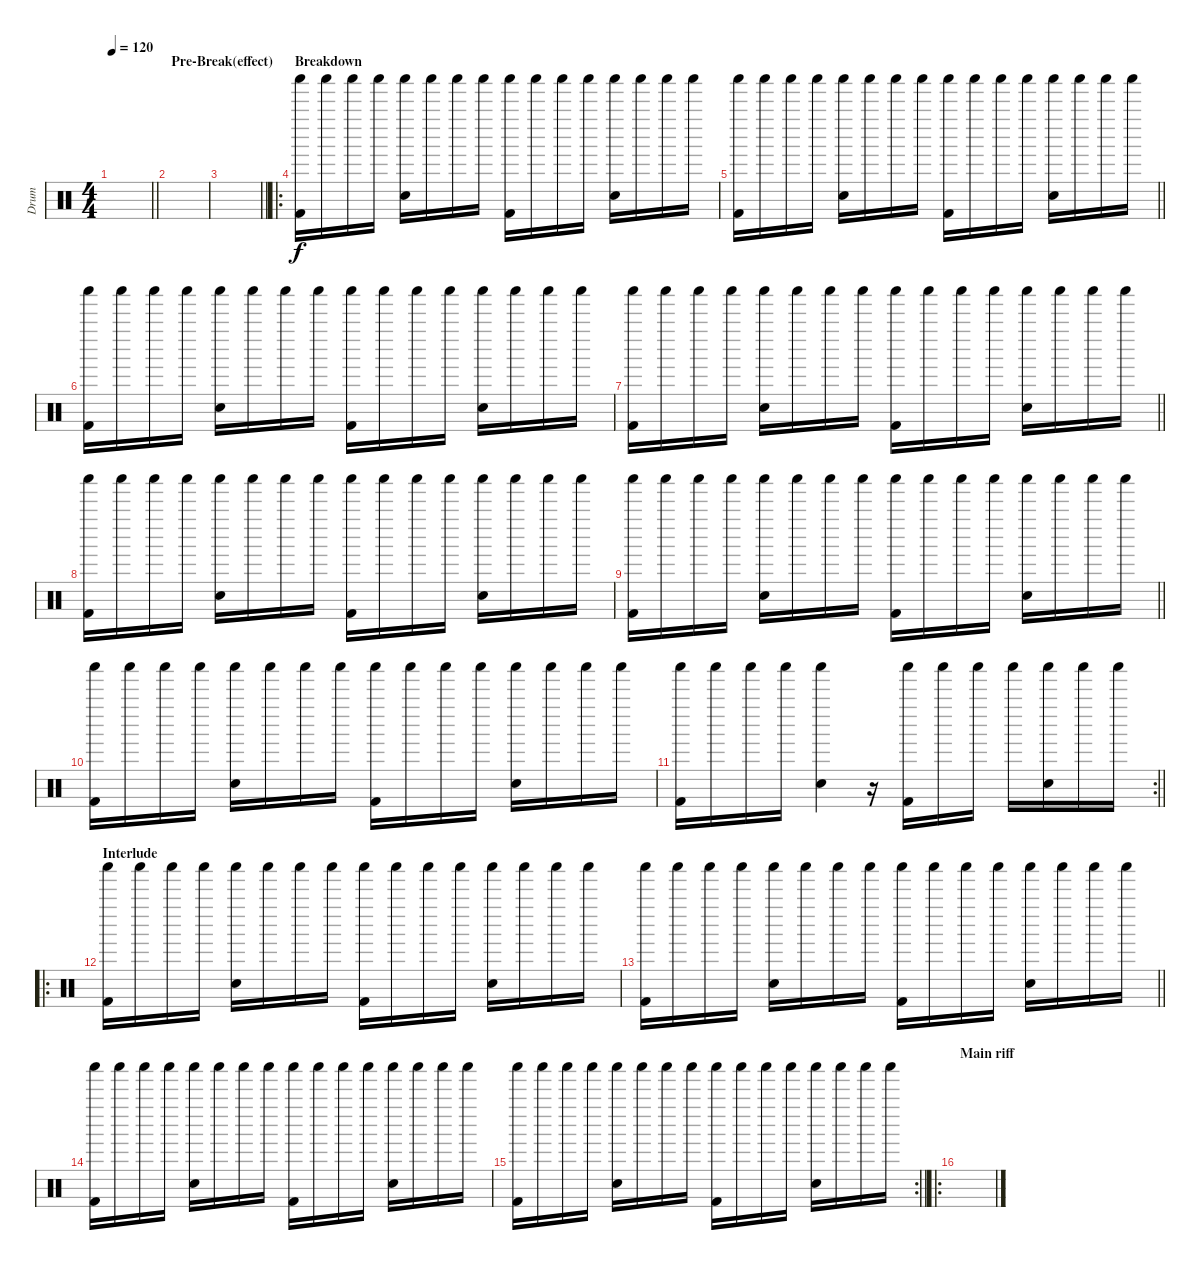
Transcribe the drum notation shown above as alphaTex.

\track ("Drum " "Drum ") {instrument percussion}
\staff {score}
\articulation defaults
\ts (4 4)
\tempo 120
\clef neutral
\barLineRight lightlight
\ks c
|
\section ("" "Pre-Break(effect)")
|
\barLineRight lightlight
|
\ro
\section ("" "Breakdown")
("Kick (hit) 2" "Shaker (hit)").16 "Shaker (hit)".16 "Shaker (hit)".16 "Shaker (hit)".16 ("Electric Snare (hit)" "Shaker (hit)").16 "Shaker (hit)".16 "Shaker (hit)".16 "Shaker (hit)".16 ("Kick (hit) 2" "Shaker (hit)").16 "Shaker (hit)".16 "Shaker (hit)".16 "Shaker (hit)".16 ("Electric Snare (hit)" "Shaker (hit)").16 "Shaker (hit)".16 "Shaker (hit)".16 "Shaker (hit)".16 |
\barLineRight lightlight
("Kick (hit) 2" "Shaker (hit)").16 "Shaker (hit)".16 "Shaker (hit)".16 "Shaker (hit)".16 ("Electric Snare (hit)" "Shaker (hit)").16 "Shaker (hit)".16 "Shaker (hit)".16 "Shaker (hit)".16 ("Kick (hit) 2" "Shaker (hit)").16 "Shaker (hit)".16 "Shaker (hit)".16 "Shaker (hit)".16 ("Electric Snare (hit)" "Shaker (hit)").16 "Shaker (hit)".16 "Shaker (hit)".16 "Shaker (hit)".16 |
("Kick (hit) 2" "Shaker (hit)").16 "Shaker (hit)".16 "Shaker (hit)".16 "Shaker (hit)".16 ("Electric Snare (hit)" "Shaker (hit)").16 "Shaker (hit)".16 "Shaker (hit)".16 "Shaker (hit)".16 ("Kick (hit) 2" "Shaker (hit)").16 "Shaker (hit)".16 "Shaker (hit)".16 "Shaker (hit)".16 ("Electric Snare (hit)" "Shaker (hit)").16 "Shaker (hit)".16 "Shaker (hit)".16 "Shaker (hit)".16 |
\barLineRight lightlight
("Kick (hit) 2" "Shaker (hit)").16 "Shaker (hit)".16 "Shaker (hit)".16 "Shaker (hit)".16 ("Electric Snare (hit)" "Shaker (hit)").16 "Shaker (hit)".16 "Shaker (hit)".16 "Shaker (hit)".16 ("Kick (hit) 2" "Shaker (hit)").16 "Shaker (hit)".16 "Shaker (hit)".16 "Shaker (hit)".16 ("Electric Snare (hit)" "Shaker (hit)").16 "Shaker (hit)".16 "Shaker (hit)".16 "Shaker (hit)".16 |
("Kick (hit) 2" "Shaker (hit)").16 "Shaker (hit)".16 "Shaker (hit)".16 "Shaker (hit)".16 ("Electric Snare (hit)" "Shaker (hit)").16 "Shaker (hit)".16 "Shaker (hit)".16 "Shaker (hit)".16 ("Kick (hit) 2" "Shaker (hit)").16 "Shaker (hit)".16 "Shaker (hit)".16 "Shaker (hit)".16 ("Electric Snare (hit)" "Shaker (hit)").16 "Shaker (hit)".16 "Shaker (hit)".16 "Shaker (hit)".16 |
\barLineRight lightlight
("Kick (hit) 2" "Shaker (hit)").16 "Shaker (hit)".16 "Shaker (hit)".16 "Shaker (hit)".16 ("Electric Snare (hit)" "Shaker (hit)").16 "Shaker (hit)".16 "Shaker (hit)".16 "Shaker (hit)".16 ("Kick (hit) 2" "Shaker (hit)").16 "Shaker (hit)".16 "Shaker (hit)".16 "Shaker (hit)".16 ("Electric Snare (hit)" "Shaker (hit)").16 "Shaker (hit)".16 "Shaker (hit)".16 "Shaker (hit)".16 |
("Kick (hit) 2" "Shaker (hit)").16 "Shaker (hit)".16 "Shaker (hit)".16 "Shaker (hit)".16 ("Electric Snare (hit)" "Shaker (hit)").16 "Shaker (hit)".16 "Shaker (hit)".16 "Shaker (hit)".16 ("Kick (hit) 2" "Shaker (hit)").16 "Shaker (hit)".16 "Shaker (hit)".16 "Shaker (hit)".16 ("Electric Snare (hit)" "Shaker (hit)").16 "Shaker (hit)".16 "Shaker (hit)".16 "Shaker (hit)".16 |
\rc 2
\barLineRight lightlight
("Kick (hit) 2" "Shaker (hit)").16 "Shaker (hit)".16 "Shaker (hit)".16 "Shaker (hit)".16 ("Electric Snare (hit)" "Shaker (hit)").4 r.16 ("Kick (hit) 2" "Shaker (hit)").16 "Shaker (hit)".16 "Shaker (hit)".16 "Shaker (hit)".16 ("Electric Snare (hit)" "Shaker (hit)").16 "Shaker (hit)".16 "Shaker (hit)".16 |
\ro
\section ("" "Interlude")
("Kick (hit) 2" "Shaker (hit)").16 "Shaker (hit)".16 "Shaker (hit)".16 "Shaker (hit)".16 ("Electric Snare (hit)" "Shaker (hit)").16 "Shaker (hit)".16 "Shaker (hit)".16 "Shaker (hit)".16 ("Kick (hit) 2" "Shaker (hit)").16 "Shaker (hit)".16 "Shaker (hit)".16 "Shaker (hit)".16 ("Electric Snare (hit)" "Shaker (hit)").16 "Shaker (hit)".16 "Shaker (hit)".16 "Shaker (hit)".16 |
\barLineRight lightlight
("Kick (hit) 2" "Shaker (hit)").16 "Shaker (hit)".16 "Shaker (hit)".16 "Shaker (hit)".16 ("Electric Snare (hit)" "Shaker (hit)").16 "Shaker (hit)".16 "Shaker (hit)".16 "Shaker (hit)".16 ("Kick (hit) 2" "Shaker (hit)").16 "Shaker (hit)".16 "Shaker (hit)".16 "Shaker (hit)".16 ("Electric Snare (hit)" "Shaker (hit)").16 "Shaker (hit)".16 "Shaker (hit)".16 "Shaker (hit)".16 |
("Kick (hit) 2" "Shaker (hit)").16 "Shaker (hit)".16 "Shaker (hit)".16 "Shaker (hit)".16 ("Electric Snare (hit)" "Shaker (hit)").16 "Shaker (hit)".16 "Shaker (hit)".16 "Shaker (hit)".16 ("Kick (hit) 2" "Shaker (hit)").16 "Shaker (hit)".16 "Shaker (hit)".16 "Shaker (hit)".16 ("Electric Snare (hit)" "Shaker (hit)").16 "Shaker (hit)".16 "Shaker (hit)".16 "Shaker (hit)".16 |
\rc 2
\barLineRight lightlight
("Kick (hit) 2" "Shaker (hit)").16 "Shaker (hit)".16 "Shaker (hit)".16 "Shaker (hit)".16 ("Electric Snare (hit)" "Shaker (hit)").16 "Shaker (hit)".16 "Shaker (hit)".16 "Shaker (hit)".16 ("Kick (hit) 2" "Shaker (hit)").16 "Shaker (hit)".16 "Shaker (hit)".16 "Shaker (hit)".16 ("Electric Snare (hit)" "Shaker (hit)").16 "Shaker (hit)".16 "Shaker (hit)".16 "Shaker (hit)".16 |
\ro
\section ("" "Main riff")
